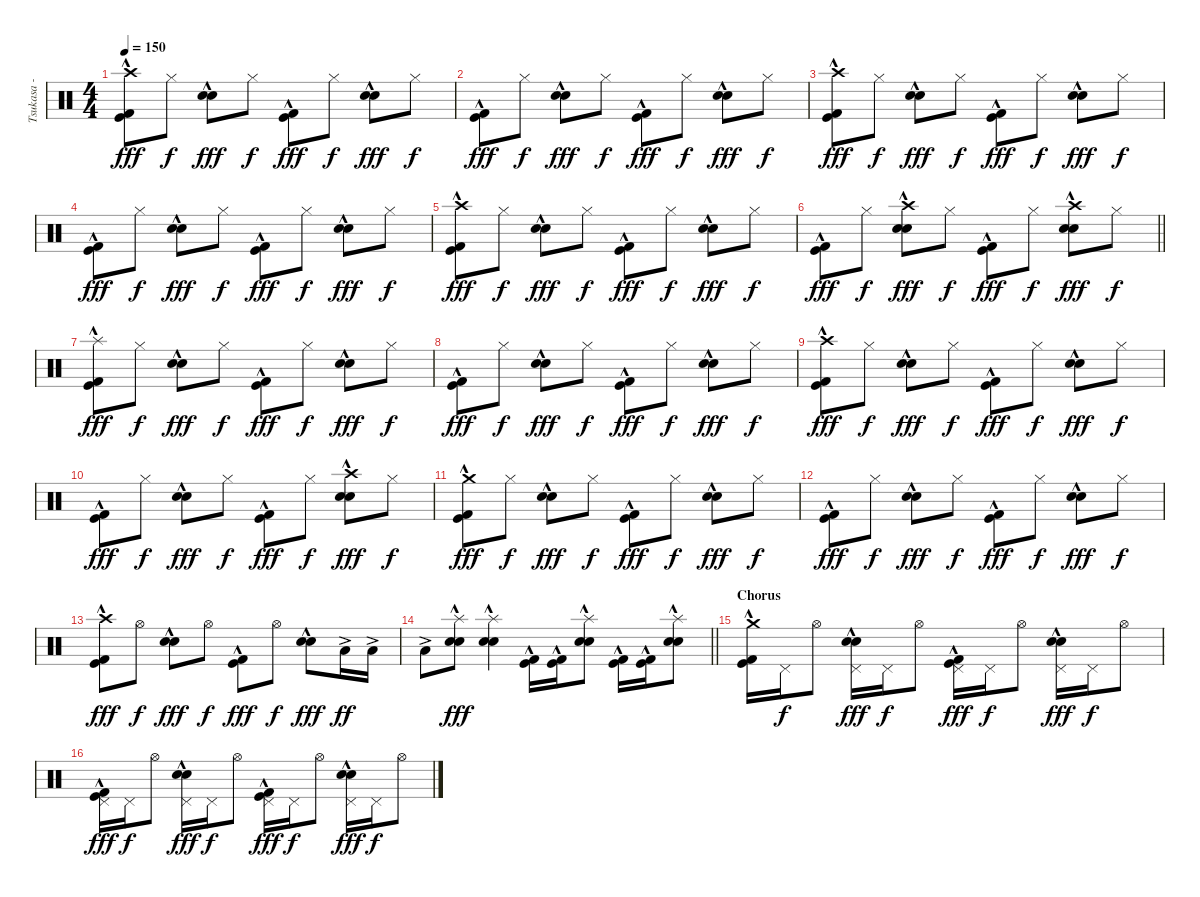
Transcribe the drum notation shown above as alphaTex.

\track ("Tsukasa - Drums" "Tsukasa - ") {instrument percussion}
\staff {score}
\articulation defaults
\ts (4 4)
\tempo 150
\clef neutral
\ks c
("Crash high (hit)" "Kick (hit)" "Kick (hit) 2"{hac}).8{dy fff} "Hi-Hat (closed)".8{dy f} ("Electric Snare (hit)"{hac} "Snare (hit) 2").8{dy fff} "Hi-Hat (closed)".8{dy f} ("Kick (hit)" "Kick (hit) 2"{hac}).8{dy fff} "Hi-Hat (closed)".8{dy f} ("Electric Snare (hit)"{hac} "Snare (hit) 2").8{dy fff} "Hi-Hat (closed)".8{dy f} |
("Kick (hit)" "Kick (hit) 2"{hac}).8{dy fff} "Hi-Hat (closed)".8{dy f} ("Electric Snare (hit)"{hac} "Snare (hit) 2").8{dy fff} "Hi-Hat (closed)".8{dy f} ("Kick (hit)" "Kick (hit) 2"{hac}).8{dy fff} "Hi-Hat (closed)".8{dy f} ("Electric Snare (hit)"{hac} "Snare (hit) 2").8{dy fff} "Hi-Hat (closed)".8{dy f} |
("Crash high (hit)" "Kick (hit)" "Kick (hit) 2"{hac}).8{dy fff} "Hi-Hat (closed)".8{dy f} ("Electric Snare (hit)"{hac} "Snare (hit) 2").8{dy fff} "Hi-Hat (closed)".8{dy f} ("Kick (hit)" "Kick (hit) 2"{hac}).8{dy fff} "Hi-Hat (closed)".8{dy f} ("Electric Snare (hit)"{hac} "Snare (hit) 2").8{dy fff} "Hi-Hat (closed)".8{dy f} |
("Kick (hit)" "Kick (hit) 2"{hac}).8{dy fff} "Hi-Hat (closed)".8{dy f} ("Electric Snare (hit)"{hac} "Snare (hit) 2").8{dy fff} "Hi-Hat (closed)".8{dy f} ("Kick (hit)" "Kick (hit) 2"{hac}).8{dy fff} "Hi-Hat (closed)".8{dy f} ("Electric Snare (hit)"{hac} "Snare (hit) 2").8{dy fff} "Hi-Hat (closed)".8{dy f} |
("Crash high (hit)" "Kick (hit)" "Kick (hit) 2"{hac}).8{dy fff} "Hi-Hat (closed)".8{dy f} ("Electric Snare (hit)"{hac} "Snare (hit) 2").8{dy fff} "Hi-Hat (closed)".8{dy f} ("Kick (hit)" "Kick (hit) 2"{hac}).8{dy fff} "Hi-Hat (closed)".8{dy f} ("Electric Snare (hit)"{hac} "Snare (hit) 2").8{dy fff} "Hi-Hat (closed)".8{dy f} |
\barLineRight lightlight
("Kick (hit)" "Kick (hit) 2"{hac}).8{dy fff} "Hi-Hat (closed)".8{dy f} ("Crash high (hit)" "Electric Snare (hit)"{hac} "Snare (hit) 2").8{dy fff} "Hi-Hat (closed)".8{dy f} ("Kick (hit)" "Kick (hit) 2"{hac}).8{dy fff} "Hi-Hat (closed)".8{dy f} ("Crash high (hit)" "Electric Snare (hit)"{hac} "Snare (hit) 2").8{dy fff} "Hi-Hat (closed)".8{dy f} |
\section ("" "")
("Splash (hit)"{hac} "Kick (hit)" "Kick (hit) 2"{hac}).8{dy fff} "Hi-Hat (closed)".8{dy f} ("Electric Snare (hit)"{hac} "Snare (hit) 2").8{dy fff} "Hi-Hat (closed)".8{dy f} ("Kick (hit)" "Kick (hit) 2"{hac}).8{dy fff} "Hi-Hat (closed)".8{dy f} ("Electric Snare (hit)"{hac} "Snare (hit) 2").8{dy fff} "Hi-Hat (closed)".8{dy f} |
("Kick (hit)" "Kick (hit) 2"{hac}).8{dy fff} "Hi-Hat (closed)".8{dy f} ("Electric Snare (hit)"{hac} "Snare (hit) 2").8{dy fff} "Hi-Hat (closed)".8{dy f} ("Kick (hit)" "Kick (hit) 2"{hac}).8{dy fff} "Hi-Hat (closed)".8{dy f} ("Electric Snare (hit)"{hac} "Snare (hit) 2").8{dy fff} "Hi-Hat (closed)".8{dy f} |
("Crash high (hit)" "Kick (hit)" "Kick (hit) 2"{hac}).8{dy fff} "Hi-Hat (closed)".8{dy f} ("Electric Snare (hit)"{hac} "Snare (hit) 2").8{dy fff} "Hi-Hat (closed)".8{dy f} ("Kick (hit)" "Kick (hit) 2"{hac}).8{dy fff} "Hi-Hat (closed)".8{dy f} ("Electric Snare (hit)"{hac} "Snare (hit) 2").8{dy fff} "Hi-Hat (closed)".8{dy f} |
("Kick (hit)" "Kick (hit) 2"{hac}).8{dy fff} "Hi-Hat (closed)".8{dy f} ("Electric Snare (hit)"{hac} "Snare (hit) 2").8{dy fff} "Hi-Hat (closed)".8{dy f} ("Kick (hit)" "Kick (hit) 2"{hac}).8{dy fff} "Hi-Hat (closed)".8{dy f} ("Crash high (hit)" "Electric Snare (hit)"{hac} "Snare (hit) 2").8{dy fff} "Hi-Hat (closed)".8{dy f} |
("Crash medium (hit)" "Kick (hit)" "Kick (hit) 2"{hac}).8{dy fff} "Hi-Hat (closed)".8{dy f} ("Electric Snare (hit)"{hac} "Snare (hit) 2").8{dy fff} "Hi-Hat (closed)".8{dy f} ("Kick (hit)" "Kick (hit) 2"{hac}).8{dy fff} "Hi-Hat (closed)".8{dy f} ("Electric Snare (hit)"{hac} "Snare (hit) 2").8{dy fff} "Hi-Hat (closed)".8{dy f} |
("Kick (hit)" "Kick (hit) 2"{hac}).8{dy fff} "Hi-Hat (closed)".8{dy f} ("Electric Snare (hit)"{hac} "Snare (hit) 2").8{dy fff} "Hi-Hat (closed)".8{dy f} ("Kick (hit)" "Kick (hit) 2"{hac}).8{dy fff} "Hi-Hat (closed)".8{dy f} ("Electric Snare (hit)"{hac} "Snare (hit) 2").8{dy fff} "Hi-Hat (closed)".8{dy f} |
("Crash high (hit)" "Kick (hit)" "Kick (hit) 2"{hac}).8{dy fff} "Hi-Hat (open)".8{dy f} ("Electric Snare (hit)"{hac} "Snare (hit) 2").8{dy fff} "Hi-Hat (open)".8{dy f} ("Kick (hit)" "Kick (hit) 2"{hac}).8{dy fff} "Hi-Hat (open)".8{dy f} ("Electric Snare (hit)"{hac} "Snare (hit) 2").8{dy fff} "Low Tom (hit)"{ac}.16{dy ff} "Low Tom (hit)"{ac}.16 |
\barLineRight lightlight "Low Tom (hit)"{ac}.8
("Splash (hit)"{hac} "Electric Snare (hit)"{hac} "Snare (hit) 2").8{dy fff} ("Splash (hit)"{hac} "Electric Snare (hit)"{hac} "Snare (hit) 2").4 ("Kick (hit)"{hac} "Kick (hit) 2"{hac}).16 ("Kick (hit)"{hac} "Kick (hit) 2"{hac}).16 ("Splash (hit)"{hac} "Electric Snare (hit)"{hac} "Snare (hit) 2").8 ("Kick (hit)"{hac} "Kick (hit) 2"{hac}).16 ("Kick (hit)"{hac} "Kick (hit) 2"{hac}).16 ("Splash (hit)"{hac} "Electric Snare (hit)"{hac} "Snare (hit) 2").8 |
\section ("" "Chorus")
("Crash medium (hit)" "Kick (hit)"{hac} "Kick (hit) 2"{hac}).16 "Pedal Hi-Hat (hit)".16{dy f} "Hi-Hat (open)".8 ("Pedal Hi-Hat (hit)" "Electric Snare (hit)"{hac} "Snare (hit) 2").16{dy fff} "Pedal Hi-Hat (hit)".16{dy f} "Hi-Hat (open)".8 ("Pedal Hi-Hat (hit)" "Kick (hit)"{hac} "Kick (hit) 2"{hac}).16{dy fff} "Pedal Hi-Hat (hit)".16{dy f} "Hi-Hat (open)".8 ("Pedal Hi-Hat (hit)" "Electric Snare (hit)"{hac} "Snare (hit) 2").16{dy fff} "Pedal Hi-Hat (hit)".16{dy f} "Hi-Hat (open)".8 |
("Pedal Hi-Hat (hit)" "Kick (hit)"{hac} "Kick (hit) 2"{hac}).16{dy fff} "Pedal Hi-Hat (hit)".16{dy f} "Hi-Hat (open)".8 ("Pedal Hi-Hat (hit)" "Electric Snare (hit)"{hac} "Snare (hit) 2").16{dy fff} "Pedal Hi-Hat (hit)".16{dy f} "Hi-Hat (open)".8 ("Pedal Hi-Hat (hit)" "Kick (hit)"{hac} "Kick (hit) 2"{hac}).16{dy fff} "Pedal Hi-Hat (hit)".16{dy f} "Hi-Hat (open)".8 ("Pedal Hi-Hat (hit)" "Electric Snare (hit)"{hac} "Snare (hit) 2").16{dy fff} "Pedal Hi-Hat (hit)".16{dy f} "Hi-Hat (open)".8
